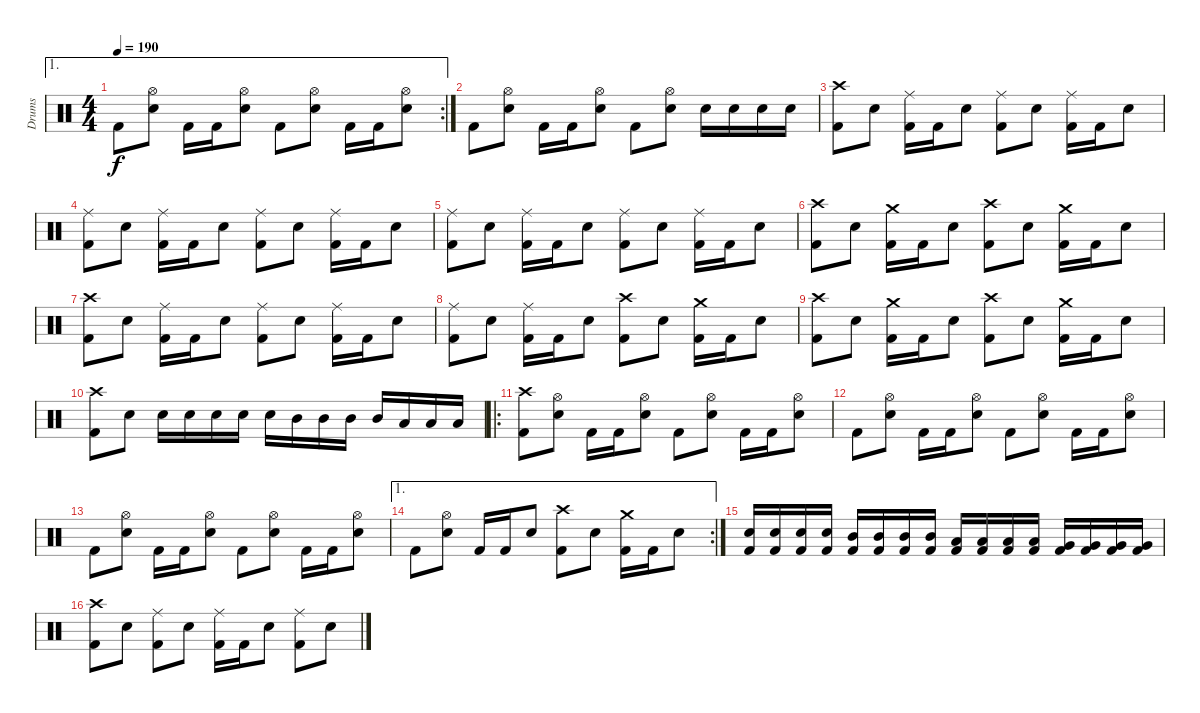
\track ("Drums" "Drums") {instrument percussion}
\staff {score}
\articulation defaults
\ae 1
\rc 2
\ts (4 4)
\tempo 190
\clef neutral
\ks c "Kick (hit) 2".8{dy f}
("Hi-Hat (open)" "Electric Snare (hit)").8 "Kick (hit) 2".16 "Kick (hit) 2".16 ("Hi-Hat (open)" "Electric Snare (hit)").8 "Kick (hit) 2".8 ("Hi-Hat (open)" "Electric Snare (hit)").8 "Kick (hit) 2".16 "Kick (hit) 2".16 ("Hi-Hat (open)" "Electric Snare (hit)").8 |
"Kick (hit) 2".8 ("Hi-Hat (open)" "Electric Snare (hit)").8 "Kick (hit) 2".16 "Kick (hit) 2".16 ("Hi-Hat (open)" "Electric Snare (hit)").8 "Kick (hit) 2".8 ("Hi-Hat (open)" "Electric Snare (hit)").8 "Electric Snare (hit)".16 "Electric Snare (hit)".16 "Electric Snare (hit)".16 "Electric Snare (hit)".16 |
("Crash high (hit)" "Kick (hit) 2").8 "Electric Snare (hit)".8 ("Ride (middle)" "Kick (hit) 2").16 "Kick (hit) 2".16 "Electric Snare (hit)".8 ("Ride (middle)" "Kick (hit) 2").8 "Electric Snare (hit)".8 ("Ride (middle)" "Kick (hit) 2").16 "Kick (hit) 2".16 "Electric Snare (hit)".8 |
("Ride (middle)" "Kick (hit) 2").8 "Electric Snare (hit)".8 ("Ride (middle)" "Kick (hit) 2").16 "Kick (hit) 2".16 "Electric Snare (hit)".8 ("Ride (middle)" "Kick (hit) 2").8 "Electric Snare (hit)".8 ("Ride (middle)" "Kick (hit) 2").16 "Kick (hit) 2".16 "Electric Snare (hit)".8 |
("Ride (middle)" "Kick (hit) 2").8 "Electric Snare (hit)".8 ("Ride (middle)" "Kick (hit) 2").16 "Kick (hit) 2".16 "Electric Snare (hit)".8 ("Ride (middle)" "Kick (hit) 2").8 "Electric Snare (hit)".8 ("Ride (middle)" "Kick (hit) 2").16 "Kick (hit) 2".16 "Electric Snare (hit)".8 |
("Crash high (hit)" "Kick (hit) 2").8 "Electric Snare (hit)".8 ("Crash medium (hit)" "Kick (hit) 2").16 "Kick (hit) 2".16 "Electric Snare (hit)".8 ("Crash high (hit)" "Kick (hit) 2").8 "Electric Snare (hit)".8 ("Crash medium (hit)" "Kick (hit) 2").16 "Kick (hit) 2".16 "Electric Snare (hit)".8 |
("Crash high (hit)" "Kick (hit) 2").8 "Electric Snare (hit)".8 ("Ride (middle)" "Kick (hit) 2").16 "Kick (hit) 2".16 "Electric Snare (hit)".8 ("Ride (middle)" "Kick (hit) 2").8 "Electric Snare (hit)".8 ("Ride (middle)" "Kick (hit) 2").16 "Kick (hit) 2".16 "Electric Snare (hit)".8 |
("Ride (middle)" "Kick (hit) 2").8 "Electric Snare (hit)".8 ("Ride (middle)" "Kick (hit) 2").16 "Kick (hit) 2".16 "Electric Snare (hit)".8 ("Crash high (hit)" "Kick (hit) 2").8 "Electric Snare (hit)".8 ("Crash medium (hit)" "Kick (hit) 2").16 "Kick (hit) 2".16 "Electric Snare (hit)".8 |
("Crash high (hit)" "Kick (hit) 2").8 "Electric Snare (hit)".8 ("Crash medium (hit)" "Kick (hit) 2").16 "Kick (hit) 2".16 "Electric Snare (hit)".8 ("Crash high (hit)" "Kick (hit) 2").8 "Electric Snare (hit)".8 ("Crash medium (hit)" "Kick (hit) 2").16 "Kick (hit) 2".16 "Electric Snare (hit)".8 |
("Crash high (hit)" "Kick (hit) 2").8 "Electric Snare (hit)".8 "Electric Snare (hit)".16 "Electric Snare (hit)".16 "Electric Snare (hit)".16 "Electric Snare (hit)".16 "Electric Snare (hit)".16 "Mid Tom (hit)".16 "Mid Tom (hit)".16 "Mid Tom (hit)".16 "Mid Tom (hit)".16 "Low Tom (hit)".16 "Low Tom (hit)".16 "Low Tom (hit)".16 |
\ro
("Crash high (hit)" "Kick (hit) 2").8 ("Hi-Hat (open)" "Electric Snare (hit)").8 "Kick (hit) 2".16 "Kick (hit) 2".16 ("Hi-Hat (open)" "Electric Snare (hit)").8 "Kick (hit) 2".8 ("Hi-Hat (open)" "Electric Snare (hit)").8 "Kick (hit) 2".16 "Kick (hit) 2".16 ("Hi-Hat (open)" "Electric Snare (hit)").8 |
"Kick (hit) 2".8 ("Hi-Hat (open)" "Electric Snare (hit)").8 "Kick (hit) 2".16 "Kick (hit) 2".16 ("Hi-Hat (open)" "Electric Snare (hit)").8 "Kick (hit) 2".8 ("Hi-Hat (open)" "Electric Snare (hit)").8 "Kick (hit) 2".16 "Kick (hit) 2".16 ("Hi-Hat (open)" "Electric Snare (hit)").8 |
"Kick (hit) 2".8 ("Hi-Hat (open)" "Electric Snare (hit)").8 "Kick (hit) 2".16 "Kick (hit) 2".16 ("Hi-Hat (open)" "Electric Snare (hit)").8 "Kick (hit) 2".8 ("Hi-Hat (open)" "Electric Snare (hit)").8 "Kick (hit) 2".16 "Kick (hit) 2".16 ("Hi-Hat (open)" "Electric Snare (hit)").8 |
\ae 1
\rc 2 "Kick (hit) 2".8
("Hi-Hat (open)" "Electric Snare (hit)").8 "Kick (hit) 2".16 "Kick (hit) 2".16 "Electric Snare (hit)".8 ("Crash high (hit)" "Kick (hit) 2").8 "Electric Snare (hit)".8 ("Crash medium (hit)" "Kick (hit) 2").16 "Kick (hit) 2".16 "Electric Snare (hit)".8 |
("Electric Snare (hit)" "Kick (hit) 2").16 ("Electric Snare (hit)" "Kick (hit) 2").16 ("Electric Snare (hit)" "Kick (hit) 2").16 ("Electric Snare (hit)" "Kick (hit) 2").16 ("Mid Tom (hit)" "Kick (hit) 2").16 ("Mid Tom (hit)" "Kick (hit) 2").16 ("Mid Tom (hit)" "Kick (hit) 2").16 ("Mid Tom (hit)" "Kick (hit) 2").16 ("Low Tom (hit)" "Kick (hit) 2").16 ("Low Tom (hit)" "Kick (hit) 2").16 ("Low Tom (hit)" "Kick (hit) 2").16 ("Low Tom (hit)" "Kick (hit) 2").16 ("Very Low Tom (hit)" "Kick (hit) 2").16 ("Very Low Tom (hit)" "Kick (hit) 2").16 ("Very Low Tom (hit)" "Kick (hit) 2").16 ("Very Low Tom (hit)" "Kick (hit) 2").16 |
("Crash high (hit)" "Kick (hit) 2").8 "Electric Snare (hit)".8 ("Ride (middle)" "Kick (hit) 2").8 "Electric Snare (hit)".8 ("Ride (middle)" "Kick (hit) 2").16 "Kick (hit) 2".16 "Electric Snare (hit)".8 ("Ride (middle)" "Kick (hit) 2").8 "Electric Snare (hit)".8
